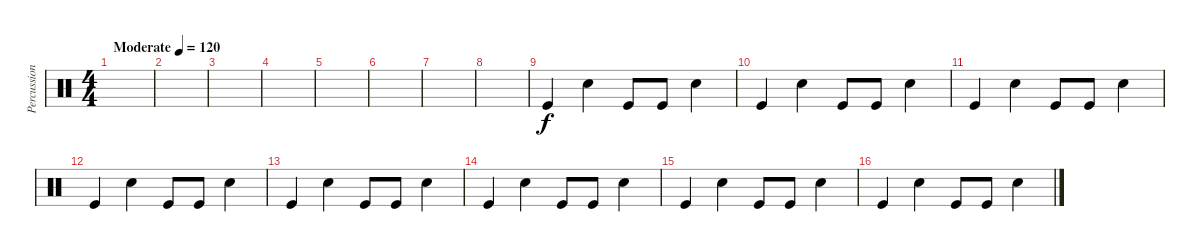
\track ("Percussion" "Percussion") {instrument percussion}
\staff {score}
\articulation defaults
\ts (4 4)
\tempo (120 "Moderate")
\clef neutral
\ks c
|
|
|
|
|
|
|
|
"Kick (hit)".4 "Snare (hit) 2".4 "Kick (hit)".8 "Kick (hit)".8 "Snare (hit) 2".4 |
"Kick (hit)".4 "Snare (hit) 2".4 "Kick (hit)".8 "Kick (hit)".8 "Snare (hit) 2".4 |
"Kick (hit)".4 "Snare (hit) 2".4 "Kick (hit)".8 "Kick (hit)".8 "Snare (hit) 2".4 |
"Kick (hit)".4 "Snare (hit) 2".4 "Kick (hit)".8 "Kick (hit)".8 "Snare (hit) 2".4 |
"Kick (hit)".4 "Snare (hit) 2".4 "Kick (hit)".8 "Kick (hit)".8 "Snare (hit) 2".4 |
"Kick (hit)".4 "Snare (hit) 2".4 "Kick (hit)".8 "Kick (hit)".8 "Snare (hit) 2".4 |
"Kick (hit)".4 "Snare (hit) 2".4 "Kick (hit)".8 "Kick (hit)".8 "Snare (hit) 2".4 |
"Kick (hit)".4 "Snare (hit) 2".4 "Kick (hit)".8 "Kick (hit)".8 "Snare (hit) 2".4
